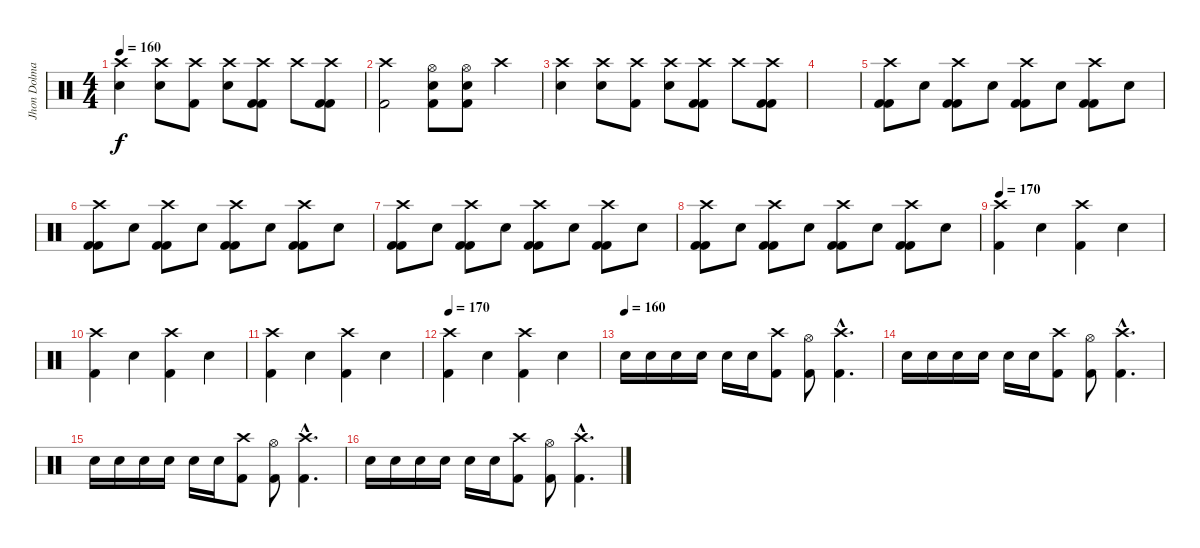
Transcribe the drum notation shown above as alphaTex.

\track ("Jhon Dolmayan(Drum)" "Jhon Dolma") {instrument percussion}
\staff {score}
\articulation defaults
\ts (4 4)
\tempo 160
\clef neutral
\ks c
("Electric Snare (hit)" "Crash high (hit)").4{dy f} ("Electric Snare (hit)" "Crash high (hit)").8 ("Crash high (hit)" "Kick (hit) 2").8 ("Electric Snare (hit)" "Crash high (hit)").8 ("Crash high (hit)" "Kick (hit) 2" "Kick (hit) 2").8 "Crash high (hit)".8 ("Crash high (hit)" "Kick (hit) 2" "Kick (hit) 2").8 |
("Crash high (hit)" "Kick (hit) 2").2 ("Electric Snare (hit)" "Kick (hit) 2" "Hi-Hat (open)").8 ("Electric Snare (hit)" "Kick (hit) 2" "Hi-Hat (open)").8 "Crash high (hit)".4 |
("Electric Snare (hit)" "Crash high (hit)").4 ("Electric Snare (hit)" "Crash high (hit)").8 ("Crash high (hit)" "Kick (hit) 2").8 ("Electric Snare (hit)" "Crash high (hit)").8 ("Crash high (hit)" "Kick (hit) 2" "Kick (hit) 2").8 "Crash high (hit)".8 ("Crash high (hit)" "Kick (hit) 2" "Kick (hit) 2").8 |
|
("Crash high (hit)" "Kick (hit) 2" "Kick (hit) 2").8 "Electric Snare (hit)".8 ("Crash high (hit)" "Kick (hit) 2" "Kick (hit) 2").8 "Electric Snare (hit)".8 ("Crash high (hit)" "Kick (hit) 2" "Kick (hit) 2").8 "Electric Snare (hit)".8 ("Crash high (hit)" "Kick (hit) 2" "Kick (hit) 2").8 "Electric Snare (hit)".8 |
("Crash high (hit)" "Kick (hit) 2" "Kick (hit) 2").8 "Electric Snare (hit)".8 ("Crash high (hit)" "Kick (hit) 2" "Kick (hit) 2").8 "Electric Snare (hit)".8 ("Crash high (hit)" "Kick (hit) 2" "Kick (hit) 2").8 "Electric Snare (hit)".8 ("Crash high (hit)" "Kick (hit) 2" "Kick (hit) 2").8 "Electric Snare (hit)".8 |
("Crash high (hit)" "Kick (hit) 2" "Kick (hit) 2").8 "Electric Snare (hit)".8 ("Crash high (hit)" "Kick (hit) 2" "Kick (hit) 2").8 "Electric Snare (hit)".8 ("Crash high (hit)" "Kick (hit) 2" "Kick (hit) 2").8 "Electric Snare (hit)".8 ("Crash high (hit)" "Kick (hit) 2" "Kick (hit) 2").8 "Electric Snare (hit)".8 |
("Crash high (hit)" "Kick (hit) 2" "Kick (hit) 2").8 "Electric Snare (hit)".8 ("Crash high (hit)" "Kick (hit) 2" "Kick (hit) 2").8 "Electric Snare (hit)".8 ("Crash high (hit)" "Kick (hit) 2" "Kick (hit) 2").8 "Electric Snare (hit)".8 ("Crash high (hit)" "Kick (hit) 2" "Kick (hit) 2").8 "Electric Snare (hit)".8 |
\tempo 170
("Crash high (hit)" "Kick (hit) 2").4 "Electric Snare (hit)".4 ("Crash high (hit)" "Kick (hit) 2").4 "Electric Snare (hit)".4 |
("Crash high (hit)" "Kick (hit) 2").4 "Electric Snare (hit)".4 ("Crash high (hit)" "Kick (hit) 2").4 "Electric Snare (hit)".4 |
("Crash high (hit)" "Kick (hit) 2").4 "Electric Snare (hit)".4 ("Crash high (hit)" "Kick (hit) 2").4 "Electric Snare (hit)".4 |
\tempo 170
("Crash high (hit)" "Kick (hit) 2").4 "Electric Snare (hit)".4 ("Crash high (hit)" "Kick (hit) 2").4 "Electric Snare (hit)".4 |
\tempo (160)
"Electric Snare (hit)".16 "Electric Snare (hit)".16 "Electric Snare (hit)".16 "Electric Snare (hit)".16 "Electric Snare (hit)".16 "Electric Snare (hit)".16 ("Crash high (hit)" "Kick (hit) 2").8 ("Hi-Hat (open)" "Kick (hit) 2").8 ("Crash high (hit)"{hac} "Kick (hit) 2"{hac}).4{d} |
"Electric Snare (hit)".16 "Electric Snare (hit)".16 "Electric Snare (hit)".16 "Electric Snare (hit)".16 "Electric Snare (hit)".16 "Electric Snare (hit)".16 ("Crash high (hit)" "Kick (hit) 2").8 ("Hi-Hat (open)" "Kick (hit) 2").8 ("Crash high (hit)"{hac} "Kick (hit) 2"{hac}).4{d} |
"Electric Snare (hit)".16 "Electric Snare (hit)".16 "Electric Snare (hit)".16 "Electric Snare (hit)".16 "Electric Snare (hit)".16 "Electric Snare (hit)".16 ("Crash high (hit)" "Kick (hit) 2").8 ("Hi-Hat (open)" "Kick (hit) 2").8 ("Crash high (hit)"{hac} "Kick (hit) 2"{hac}).4{d} |
"Electric Snare (hit)".16 "Electric Snare (hit)".16 "Electric Snare (hit)".16 "Electric Snare (hit)".16 "Electric Snare (hit)".16 "Electric Snare (hit)".16 ("Crash high (hit)" "Kick (hit) 2").8 ("Hi-Hat (open)" "Kick (hit) 2").8 ("Crash high (hit)"{hac} "Kick (hit) 2"{hac}).4{d}
